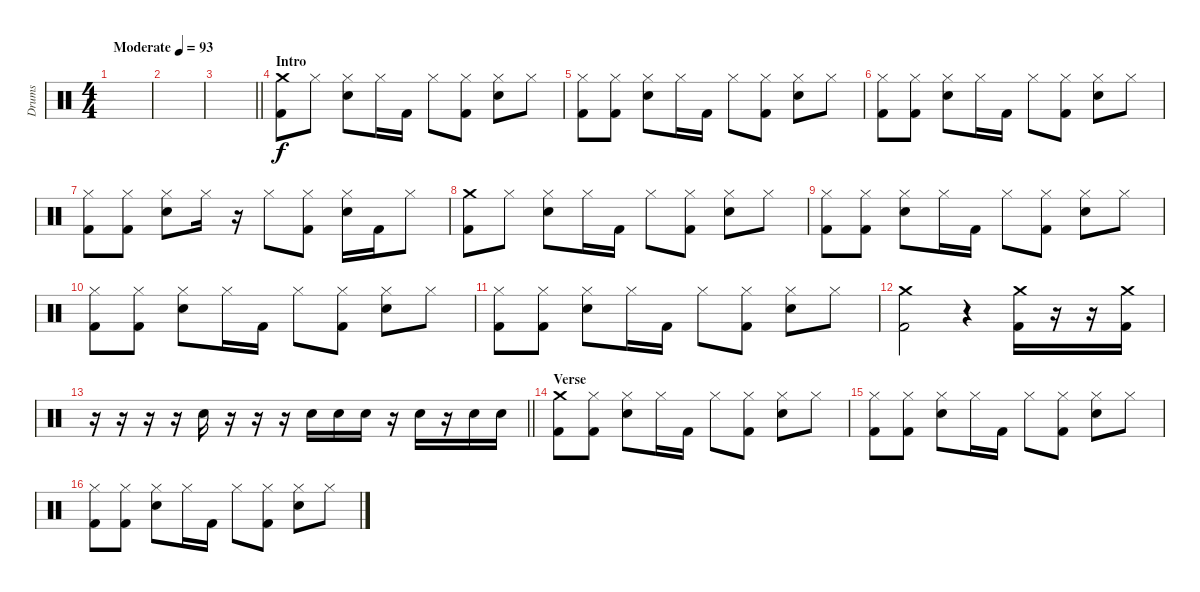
\track ("Drums" "Drums") {instrument percussion}
\staff {score}
\articulation defaults
\ts (4 4)
\tempo (93 "Moderate")
\clef neutral
\ks c
|
|
\barLineRight lightlight
|
\section ("" "Intro")
("Crash medium (hit)" "Kick (hit) 2").8 "Hi-Hat (closed)".8 ("Hi-Hat (closed)" "Snare (hit) 2").8 "Hi-Hat (closed)".16 "Kick (hit) 2".16 "Hi-Hat (closed)".8 ("Hi-Hat (closed)" "Kick (hit) 2").8 ("Hi-Hat (closed)" "Snare (hit) 2").8 "Hi-Hat (closed)".8 |
("Hi-Hat (closed)" "Kick (hit) 2").8 ("Hi-Hat (closed)" "Kick (hit) 2").8 ("Hi-Hat (closed)" "Snare (hit) 2").8 "Hi-Hat (closed)".16 "Kick (hit) 2".16 "Hi-Hat (closed)".8 ("Hi-Hat (closed)" "Kick (hit) 2").8 ("Hi-Hat (closed)" "Snare (hit) 2").8 "Hi-Hat (closed)".8 |
("Hi-Hat (closed)" "Kick (hit) 2").8 ("Hi-Hat (closed)" "Kick (hit) 2").8 ("Hi-Hat (closed)" "Snare (hit) 2").8 "Hi-Hat (closed)".16 "Kick (hit) 2".16 "Hi-Hat (closed)".8 ("Hi-Hat (closed)" "Kick (hit) 2").8 ("Hi-Hat (closed)" "Snare (hit) 2").8 "Hi-Hat (closed)".8 |
("Hi-Hat (closed)" "Kick (hit) 2").8 ("Hi-Hat (closed)" "Kick (hit) 2").8 ("Hi-Hat (closed)" "Snare (hit) 2").8 "Hi-Hat (closed)".16 r.16 "Hi-Hat (closed)".8 ("Hi-Hat (closed)" "Kick (hit) 2").8 ("Hi-Hat (closed)" "Snare (hit) 2").16 "Kick (hit) 2".16 "Hi-Hat (closed)".8 |
("Crash medium (hit)" "Kick (hit) 2").8 "Hi-Hat (closed)".8 ("Hi-Hat (closed)" "Snare (hit) 2").8 "Hi-Hat (closed)".16 "Kick (hit) 2".16 "Hi-Hat (closed)".8 ("Hi-Hat (closed)" "Kick (hit) 2").8 ("Hi-Hat (closed)" "Snare (hit) 2").8 "Hi-Hat (closed)".8 |
("Hi-Hat (closed)" "Kick (hit) 2").8 ("Hi-Hat (closed)" "Kick (hit) 2").8 ("Hi-Hat (closed)" "Snare (hit) 2").8 "Hi-Hat (closed)".16 "Kick (hit) 2".16 "Hi-Hat (closed)".8 ("Hi-Hat (closed)" "Kick (hit) 2").8 ("Hi-Hat (closed)" "Snare (hit) 2").8 "Hi-Hat (closed)".8 |
("Hi-Hat (closed)" "Kick (hit) 2").8 ("Hi-Hat (closed)" "Kick (hit) 2").8 ("Hi-Hat (closed)" "Snare (hit) 2").8 "Hi-Hat (closed)".16 "Kick (hit) 2".16 "Hi-Hat (closed)".8 ("Hi-Hat (closed)" "Kick (hit) 2").8 ("Hi-Hat (closed)" "Snare (hit) 2").8 "Hi-Hat (closed)".8 |
("Hi-Hat (closed)" "Kick (hit) 2").8 ("Hi-Hat (closed)" "Kick (hit) 2").8 ("Hi-Hat (closed)" "Snare (hit) 2").8 "Hi-Hat (closed)".16 "Kick (hit) 2".16 "Hi-Hat (closed)".8 ("Hi-Hat (closed)" "Kick (hit) 2").8 ("Hi-Hat (closed)" "Snare (hit) 2").8 "Hi-Hat (closed)".8 |
("Crash medium (hit)" "Kick (hit) 2").2 r.4 ("Crash medium (hit)" "Kick (hit) 2").16 r.16 r.16 ("Crash medium (hit)" "Kick (hit) 2").16 |
\barLineRight lightlight
r.16 r.16 r.16 r.16 "Snare (hit) 2".16 r.16 r.16 r.16 "Snare (hit) 2".16 "Snare (hit) 2".16 "Snare (hit) 2".16 r.16 "Snare (hit) 2".16 r.16 "Snare (hit) 2".16 "Snare (hit) 2".16 |
\section ("" "Verse")
("Crash medium (hit)" "Kick (hit) 2").8 ("Hi-Hat (closed)" "Kick (hit) 2").8 ("Hi-Hat (closed)" "Snare (hit) 2").8 "Hi-Hat (closed)".16 "Kick (hit) 2".16 "Hi-Hat (closed)".8 ("Hi-Hat (closed)" "Kick (hit) 2").8 ("Hi-Hat (closed)" "Snare (hit) 2").8 "Hi-Hat (closed)".8 |
("Hi-Hat (closed)" "Kick (hit) 2").8 ("Hi-Hat (closed)" "Kick (hit) 2").8 ("Hi-Hat (closed)" "Snare (hit) 2").8 "Hi-Hat (closed)".16 "Kick (hit) 2".16 "Hi-Hat (closed)".8 ("Hi-Hat (closed)" "Kick (hit) 2").8 ("Hi-Hat (closed)" "Snare (hit) 2").8 "Hi-Hat (closed)".8 |
("Hi-Hat (closed)" "Kick (hit) 2").8 ("Hi-Hat (closed)" "Kick (hit) 2").8 ("Hi-Hat (closed)" "Snare (hit) 2").8 "Hi-Hat (closed)".16 "Kick (hit) 2".16 "Hi-Hat (closed)".8 ("Hi-Hat (closed)" "Kick (hit) 2").8 ("Hi-Hat (closed)" "Snare (hit) 2").8 "Hi-Hat (closed)".8
